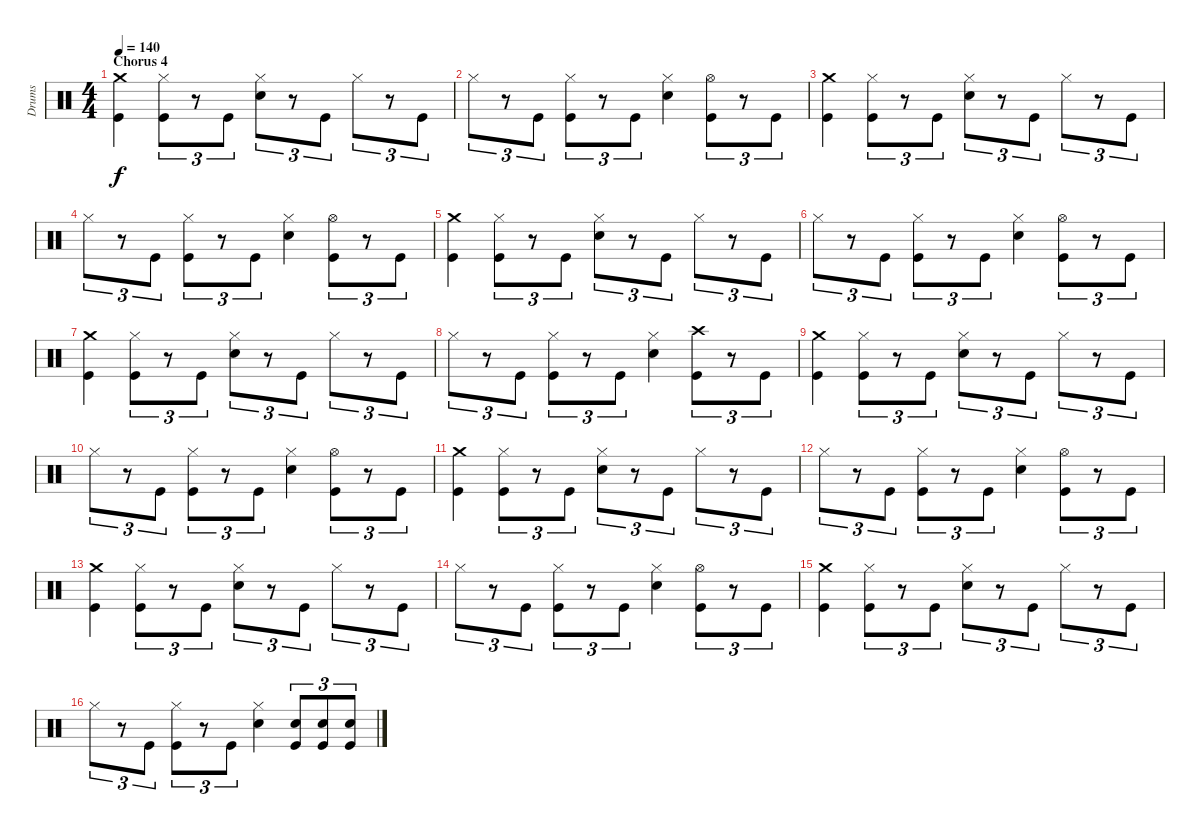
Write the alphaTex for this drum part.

\track ("Drums" "Drums") {instrument percussion}
\staff {score}
\articulation defaults
\ts (4 4)
\section ("" "Chorus 4")
\tempo 140
\clef neutral
\ks c
("Crash medium (hit)" "Kick (hit)").4{dy f} ("Hi-Hat (closed)" "Kick (hit)").8{tu (3 2)} r.8{tu (3 2)} "Kick (hit)".8{tu (3 2)} ("Hi-Hat (closed)" "Electric Snare (hit)").8{tu (3 2)} r.8{tu (3 2)} "Kick (hit)".8{tu (3 2)} "Hi-Hat (closed)".8{tu (3 2)} r.8{tu (3 2)} "Kick (hit)".8{tu (3 2)} |
"Hi-Hat (closed)".8{tu (3 2)} r.8{tu (3 2)} "Kick (hit)".8{tu (3 2)} ("Hi-Hat (closed)" "Kick (hit)").8{tu (3 2)} r.8{tu (3 2)} "Kick (hit)".8{tu (3 2)} ("Hi-Hat (closed)" "Electric Snare (hit)").4 ("Hi-Hat (open)" "Kick (hit)").8{tu (3 2)} r.8{tu (3 2)} "Kick (hit)".8{tu (3 2)} |
("Crash medium (hit)" "Kick (hit)").4 ("Hi-Hat (closed)" "Kick (hit)").8{tu (3 2)} r.8{tu (3 2)} "Kick (hit)".8{tu (3 2)} ("Hi-Hat (closed)" "Electric Snare (hit)").8{tu (3 2)} r.8{tu (3 2)} "Kick (hit)".8{tu (3 2)} "Hi-Hat (closed)".8{tu (3 2)} r.8{tu (3 2)} "Kick (hit)".8{tu (3 2)} |
"Hi-Hat (closed)".8{tu (3 2)} r.8{tu (3 2)} "Kick (hit)".8{tu (3 2)} ("Hi-Hat (closed)" "Kick (hit)").8{tu (3 2)} r.8{tu (3 2)} "Kick (hit)".8{tu (3 2)} ("Hi-Hat (closed)" "Electric Snare (hit)").4 ("Hi-Hat (open)" "Kick (hit)").8{tu (3 2)} r.8{tu (3 2)} "Kick (hit)".8{tu (3 2)} |
("Crash medium (hit)" "Kick (hit)").4 ("Hi-Hat (closed)" "Kick (hit)").8{tu (3 2)} r.8{tu (3 2)} "Kick (hit)".8{tu (3 2)} ("Hi-Hat (closed)" "Electric Snare (hit)").8{tu (3 2)} r.8{tu (3 2)} "Kick (hit)".8{tu (3 2)} "Hi-Hat (closed)".8{tu (3 2)} r.8{tu (3 2)} "Kick (hit)".8{tu (3 2)} |
"Hi-Hat (closed)".8{tu (3 2)} r.8{tu (3 2)} "Kick (hit)".8{tu (3 2)} ("Hi-Hat (closed)" "Kick (hit)").8{tu (3 2)} r.8{tu (3 2)} "Kick (hit)".8{tu (3 2)} ("Hi-Hat (closed)" "Electric Snare (hit)").4 ("Hi-Hat (open)" "Kick (hit)").8{tu (3 2)} r.8{tu (3 2)} "Kick (hit)".8{tu (3 2)} |
("Crash medium (hit)" "Kick (hit)").4 ("Hi-Hat (closed)" "Kick (hit)").8{tu (3 2)} r.8{tu (3 2)} "Kick (hit)".8{tu (3 2)} ("Hi-Hat (closed)" "Electric Snare (hit)").8{tu (3 2)} r.8{tu (3 2)} "Kick (hit)".8{tu (3 2)} "Hi-Hat (closed)".8{tu (3 2)} r.8{tu (3 2)} "Kick (hit)".8{tu (3 2)} |
"Hi-Hat (closed)".8{tu (3 2)} r.8{tu (3 2)} "Kick (hit)".8{tu (3 2)} ("Hi-Hat (closed)" "Kick (hit)").8{tu (3 2)} r.8{tu (3 2)} "Kick (hit)".8{tu (3 2)} ("Hi-Hat (closed)" "Electric Snare (hit)").4 ("Crash high (hit)" "Kick (hit)").8{tu (3 2)} r.8{tu (3 2)} "Kick (hit)".8{tu (3 2)} |
("Crash medium (hit)" "Kick (hit)").4 ("Hi-Hat (closed)" "Kick (hit)").8{tu (3 2)} r.8{tu (3 2)} "Kick (hit)".8{tu (3 2)} ("Hi-Hat (closed)" "Electric Snare (hit)").8{tu (3 2)} r.8{tu (3 2)} "Kick (hit)".8{tu (3 2)} "Hi-Hat (closed)".8{tu (3 2)} r.8{tu (3 2)} "Kick (hit)".8{tu (3 2)} |
"Hi-Hat (closed)".8{tu (3 2)} r.8{tu (3 2)} "Kick (hit)".8{tu (3 2)} ("Hi-Hat (closed)" "Kick (hit)").8{tu (3 2)} r.8{tu (3 2)} "Kick (hit)".8{tu (3 2)} ("Hi-Hat (closed)" "Electric Snare (hit)").4 ("Hi-Hat (open)" "Kick (hit)").8{tu (3 2)} r.8{tu (3 2)} "Kick (hit)".8{tu (3 2)} |
("Crash medium (hit)" "Kick (hit)").4 ("Hi-Hat (closed)" "Kick (hit)").8{tu (3 2)} r.8{tu (3 2)} "Kick (hit)".8{tu (3 2)} ("Hi-Hat (closed)" "Electric Snare (hit)").8{tu (3 2)} r.8{tu (3 2)} "Kick (hit)".8{tu (3 2)} "Hi-Hat (closed)".8{tu (3 2)} r.8{tu (3 2)} "Kick (hit)".8{tu (3 2)} |
"Hi-Hat (closed)".8{tu (3 2)} r.8{tu (3 2)} "Kick (hit)".8{tu (3 2)} ("Hi-Hat (closed)" "Kick (hit)").8{tu (3 2)} r.8{tu (3 2)} "Kick (hit)".8{tu (3 2)} ("Hi-Hat (closed)" "Electric Snare (hit)").4 ("Hi-Hat (open)" "Kick (hit)").8{tu (3 2)} r.8{tu (3 2)} "Kick (hit)".8{tu (3 2)} |
("Crash medium (hit)" "Kick (hit)").4 ("Hi-Hat (closed)" "Kick (hit)").8{tu (3 2)} r.8{tu (3 2)} "Kick (hit)".8{tu (3 2)} ("Hi-Hat (closed)" "Electric Snare (hit)").8{tu (3 2)} r.8{tu (3 2)} "Kick (hit)".8{tu (3 2)} "Hi-Hat (closed)".8{tu (3 2)} r.8{tu (3 2)} "Kick (hit)".8{tu (3 2)} |
"Hi-Hat (closed)".8{tu (3 2)} r.8{tu (3 2)} "Kick (hit)".8{tu (3 2)} ("Hi-Hat (closed)" "Kick (hit)").8{tu (3 2)} r.8{tu (3 2)} "Kick (hit)".8{tu (3 2)} ("Hi-Hat (closed)" "Electric Snare (hit)").4 ("Hi-Hat (open)" "Kick (hit)").8{tu (3 2)} r.8{tu (3 2)} "Kick (hit)".8{tu (3 2)} |
("Crash medium (hit)" "Kick (hit)").4 ("Hi-Hat (closed)" "Kick (hit)").8{tu (3 2)} r.8{tu (3 2)} "Kick (hit)".8{tu (3 2)} ("Hi-Hat (closed)" "Electric Snare (hit)").8{tu (3 2)} r.8{tu (3 2)} "Kick (hit)".8{tu (3 2)} "Hi-Hat (closed)".8{tu (3 2)} r.8{tu (3 2)} "Kick (hit)".8{tu (3 2)} |
"Hi-Hat (closed)".8{tu (3 2)} r.8{tu (3 2)} "Kick (hit)".8{tu (3 2)} ("Hi-Hat (closed)" "Kick (hit)").8{tu (3 2)} r.8{tu (3 2)} "Kick (hit)".8{tu (3 2)} ("Hi-Hat (closed)" "Electric Snare (hit)").4 ("Kick (hit)" "Electric Snare (hit)").8{tu (3 2)} ("Kick (hit)" "Electric Snare (hit)").8{tu (3 2)} ("Kick (hit)" "Electric Snare (hit)").8{tu (3 2)}
